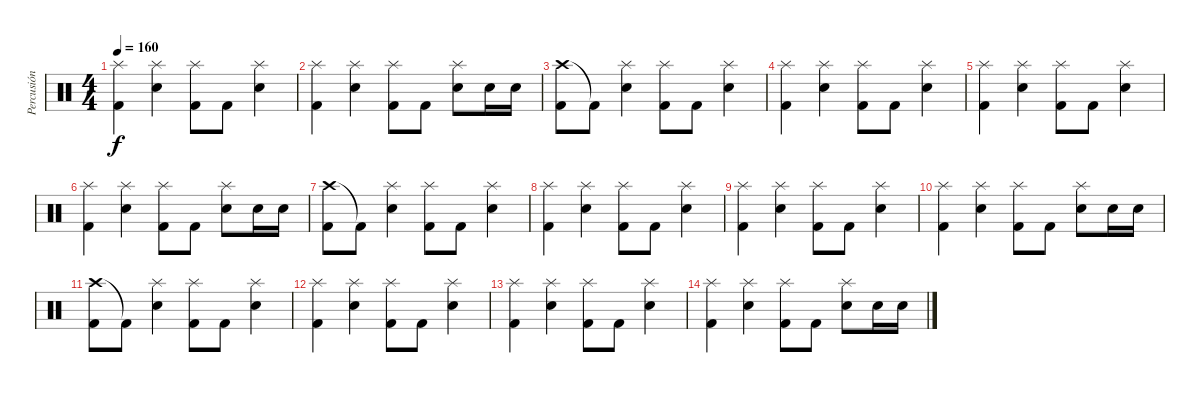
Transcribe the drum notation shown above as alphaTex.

\track ("Percusión" "Percusión") {instrument percussion}
\staff {score}
\articulation defaults
\ts (4 4)
\tempo 160
\clef neutral
\ks c
("Splash (hit)" "Kick (hit) 2").4{dy f} ("Splash (hit)" "Electric Snare (hit)").4 ("Splash (hit)" "Kick (hit) 2").8 "Kick (hit) 2".8 ("Splash (hit)" "Electric Snare (hit)").4 |
("Splash (hit)" "Kick (hit) 2").4 ("Splash (hit)" "Electric Snare (hit)").4 ("Splash (hit)" "Kick (hit) 2").8 "Kick (hit) 2".8 ("Splash (hit)" "Electric Snare (hit)").8 "Electric Snare (hit)".16 "Electric Snare (hit)".16 |
("Crash high (hit)" "Kick (hit) 2").8 "Kick (hit) 2"{t}.8 ("Splash (hit)" "Electric Snare (hit)").4 ("Splash (hit)" "Kick (hit) 2").8 "Kick (hit) 2".8 ("Splash (hit)" "Electric Snare (hit)").4 |
("Splash (hit)" "Kick (hit) 2").4 ("Splash (hit)" "Electric Snare (hit)").4 ("Splash (hit)" "Kick (hit) 2").8 "Kick (hit) 2".8 ("Splash (hit)" "Electric Snare (hit)").4 |
("Splash (hit)" "Kick (hit) 2").4 ("Splash (hit)" "Electric Snare (hit)").4 ("Splash (hit)" "Kick (hit) 2").8 "Kick (hit) 2".8 ("Splash (hit)" "Electric Snare (hit)").4 |
("Splash (hit)" "Kick (hit) 2").4 ("Splash (hit)" "Electric Snare (hit)").4 ("Splash (hit)" "Kick (hit) 2").8 "Kick (hit) 2".8 ("Splash (hit)" "Electric Snare (hit)").8 "Electric Snare (hit)".16 "Electric Snare (hit)".16 |
("Crash high (hit)" "Kick (hit) 2").8 "Kick (hit) 2"{t}.8 ("Splash (hit)" "Electric Snare (hit)").4 ("Splash (hit)" "Kick (hit) 2").8 "Kick (hit) 2".8 ("Splash (hit)" "Electric Snare (hit)").4 |
("Splash (hit)" "Kick (hit) 2").4 ("Splash (hit)" "Electric Snare (hit)").4 ("Splash (hit)" "Kick (hit) 2").8 "Kick (hit) 2".8 ("Splash (hit)" "Electric Snare (hit)").4 |
("Splash (hit)" "Kick (hit) 2").4 ("Splash (hit)" "Electric Snare (hit)").4 ("Splash (hit)" "Kick (hit) 2").8 "Kick (hit) 2".8 ("Splash (hit)" "Electric Snare (hit)").4 |
("Splash (hit)" "Kick (hit) 2").4 ("Splash (hit)" "Electric Snare (hit)").4 ("Splash (hit)" "Kick (hit) 2").8 "Kick (hit) 2".8 ("Splash (hit)" "Electric Snare (hit)").8 "Electric Snare (hit)".16 "Electric Snare (hit)".16 |
("Crash high (hit)" "Kick (hit) 2").8 "Kick (hit) 2"{t}.8 ("Splash (hit)" "Electric Snare (hit)").4 ("Splash (hit)" "Kick (hit) 2").8 "Kick (hit) 2".8 ("Splash (hit)" "Electric Snare (hit)").4 |
("Splash (hit)" "Kick (hit) 2").4 ("Splash (hit)" "Electric Snare (hit)").4 ("Splash (hit)" "Kick (hit) 2").8 "Kick (hit) 2".8 ("Splash (hit)" "Electric Snare (hit)").4 |
("Splash (hit)" "Kick (hit) 2").4 ("Splash (hit)" "Electric Snare (hit)").4 ("Splash (hit)" "Kick (hit) 2").8 "Kick (hit) 2".8 ("Splash (hit)" "Electric Snare (hit)").4 |
("Splash (hit)" "Kick (hit) 2").4{volume 0} ("Splash (hit)" "Electric Snare (hit)").4 ("Splash (hit)" "Kick (hit) 2").8 "Kick (hit) 2".8 ("Splash (hit)" "Electric Snare (hit)").8 "Electric Snare (hit)".16 "Electric Snare (hit)".16
